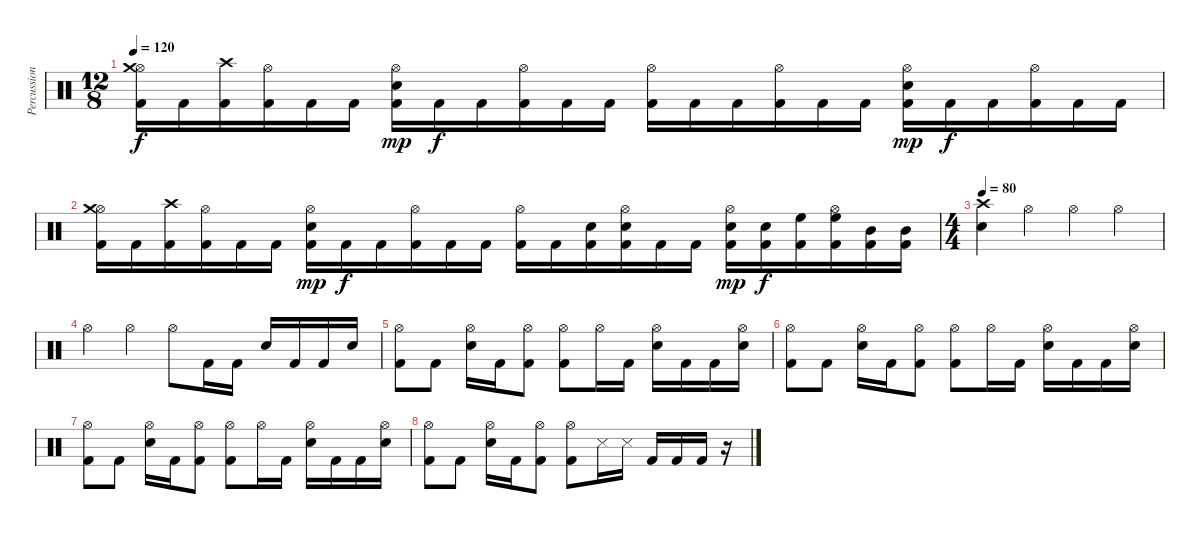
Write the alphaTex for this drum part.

\track ("Percussions" "Percussion") {instrument percussion}
\staff {score}
\articulation defaults
\ts (12 8)
\tempo 120
\clef neutral
\ks c
("Hi-Hat (open)" "Kick (hit) 2" "Crash medium (hit)").16{dy f} "Kick (hit) 2".16 ("Kick (hit) 2" "Crash high (hit)").16 ("Hi-Hat (open)" "Kick (hit) 2").16 "Kick (hit) 2".16 "Kick (hit) 2".16 ("Hi-Hat (open)" "Kick (hit) 2" "Snare (hit) 2").16{dy mp} "Kick (hit) 2".16{dy f} "Kick (hit) 2".16 ("Hi-Hat (open)" "Kick (hit) 2").16 "Kick (hit) 2".16 "Kick (hit) 2".16 ("Hi-Hat (open)" "Kick (hit) 2").16 "Kick (hit) 2".16 "Kick (hit) 2".16 ("Hi-Hat (open)" "Kick (hit) 2").16 "Kick (hit) 2".16 "Kick (hit) 2".16 ("Hi-Hat (open)" "Kick (hit) 2" "Snare (hit) 2").16{dy mp} "Kick (hit) 2".16{dy f} "Kick (hit) 2".16 ("Hi-Hat (open)" "Kick (hit) 2").16 "Kick (hit) 2".16 "Kick (hit) 2".16 |
("Hi-Hat (open)" "Kick (hit) 2" "Crash medium (hit)").16 "Kick (hit) 2".16 ("Kick (hit) 2" "Crash high (hit)").16 ("Hi-Hat (open)" "Kick (hit) 2").16 "Kick (hit) 2".16 "Kick (hit) 2".16 ("Hi-Hat (open)" "Kick (hit) 2" "Snare (hit) 2").16{dy mp} "Kick (hit) 2".16{dy f} "Kick (hit) 2".16 ("Hi-Hat (open)" "Kick (hit) 2").16 "Kick (hit) 2".16 "Kick (hit) 2".16 ("Hi-Hat (open)" "Kick (hit) 2").16 "Kick (hit) 2".16 ("Kick (hit) 2" "Snare (hit) 2").16 ("Hi-Hat (open)" "Kick (hit) 2" "Snare (hit) 2").16 "Kick (hit) 2".16 "Kick (hit) 2".16 ("Hi-Hat (open)" "Kick (hit) 2" "Snare (hit) 2").16{dy mp} ("Kick (hit) 2" "Snare (hit) 2").16{dy f} ("Kick (hit) 2" "High Floor Tom (hit)").16 ("Hi-Hat (open)" "Kick (hit) 2" "High Floor Tom (hit)").16 ("Kick (hit) 2" "Mid Tom (hit)").16 ("Kick (hit) 2" "Mid Tom (hit)").16 |
\ts (4 4)
\tempo 80
("Snare (hit) 2" "Crash high (hit)").4 "Hi-Hat (open)".4 "Hi-Hat (open)".4 "Hi-Hat (open)".4 |
"Hi-Hat (open)".4 "Hi-Hat (open)".4 "Hi-Hat (open)".8 "Kick (hit) 2".16 "Kick (hit) 2".16 "Snare (hit) 2".16 "Kick (hit) 2".16 "Kick (hit) 2".16 "Snare (hit) 2".16 |
("Hi-Hat (open)" "Kick (hit) 2").8 "Kick (hit) 2".8 ("Hi-Hat (open)" "Snare (hit) 2").16 "Kick (hit) 2".16 ("Hi-Hat (open)" "Kick (hit) 2").8 ("Hi-Hat (open)" "Kick (hit) 2").8 "Hi-Hat (open)".16 "Kick (hit) 2".16 ("Hi-Hat (open)" "Snare (hit) 2").16 "Kick (hit) 2".16 "Kick (hit) 2".16 ("Hi-Hat (open)" "Snare (hit) 2").16 |
("Hi-Hat (open)" "Kick (hit) 2").8 "Kick (hit) 2".8 ("Hi-Hat (open)" "Snare (hit) 2").16 "Kick (hit) 2".16 ("Hi-Hat (open)" "Kick (hit) 2").8 ("Hi-Hat (open)" "Kick (hit) 2").8 "Hi-Hat (open)".16 "Kick (hit) 2".16 ("Hi-Hat (open)" "Snare (hit) 2").16 "Kick (hit) 2".16 "Kick (hit) 2".16 ("Hi-Hat (open)" "Snare (hit) 2").16 |
("Hi-Hat (open)" "Kick (hit) 2").8 "Kick (hit) 2".8 ("Hi-Hat (open)" "Snare (hit) 2").16 "Kick (hit) 2".16 ("Hi-Hat (open)" "Kick (hit) 2").8 ("Hi-Hat (open)" "Kick (hit) 2").8 "Hi-Hat (open)".16 "Kick (hit) 2".16 ("Hi-Hat (open)" "Snare (hit) 2").16 "Kick (hit) 2".16 "Kick (hit) 2".16 ("Hi-Hat (open)" "Snare (hit) 2").16 |
("Hi-Hat (open)" "Kick (hit) 2").8 "Kick (hit) 2".8 ("Hi-Hat (open)" "Snare (hit) 2").16 "Kick (hit) 2".16 ("Hi-Hat (open)" "Kick (hit) 2").8 ("Hi-Hat (open)" "Kick (hit) 2").8 "Snare (side stick) 3".16 "Snare (side stick) 3".16 "Kick (hit) 2".16 "Kick (hit) 2".16 "Kick (hit) 2".16 r.16
